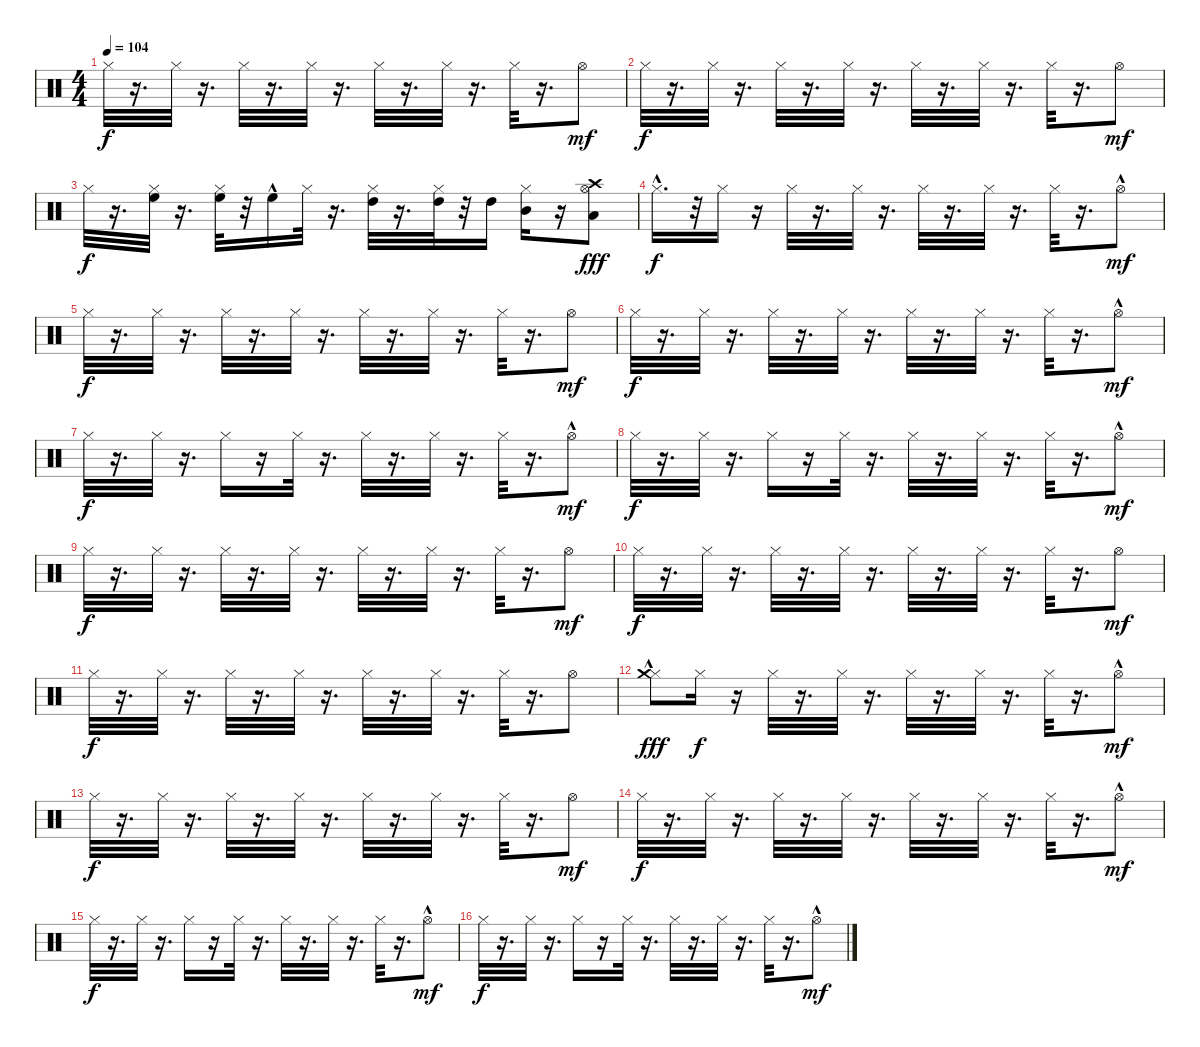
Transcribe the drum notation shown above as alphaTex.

\track "" {instrument percussion}
\staff {score}
\articulation defaults
\ts (4 4)
\tempo 104
\clef neutral
\ks c "Hi-Hat (closed)".32{dy f}
r.16{d} "Hi-Hat (closed)".32 r.16{d} "Hi-Hat (closed)".32 r.16{d} "Hi-Hat (closed)".32 r.16{d} "Hi-Hat (closed)".32 r.16{d} "Hi-Hat (closed)".32 r.16{d} "Hi-Hat (closed)".32 r.16{d} "Hi-Hat (open)".8{dy mf} |
"Hi-Hat (closed)".32{dy f} r.16{d} "Hi-Hat (closed)".32 r.16{d} "Hi-Hat (closed)".32 r.16{d} "Hi-Hat (closed)".32 r.16{d} "Hi-Hat (closed)".32 r.16{d} "Hi-Hat (closed)".32 r.16{d} "Hi-Hat (closed)".32 r.16{d} "Hi-Hat (open)".8{dy mf} |
"Hi-Hat (closed)".32{dy f} r.16{d} ("Hi-Hat (closed)" "High Floor Tom (hit)").32 r.16{d} ("Hi-Hat (closed)" "High Floor Tom (hit)").32 r.32 "High Floor Tom (hit)"{hac}.16 "Hi-Hat (closed)".32 r.16{d} ("Hi-Hat (closed)" "High Tom (hit)").32 r.16{d} ("Hi-Hat (closed)" "High Tom (hit)").32 r.32 "High Tom (hit)".16 ("Hi-Hat (closed)" "Mid Tom (hit)").16 r.16 ("Hi-Hat (open)" "Low Tom (hit)" "Crash high (hit)").8{dy fff} |
"Hi-Hat (closed)"{hac}.16{d dy f} r.32 "Hi-Hat (closed)".16 r.16 "Hi-Hat (closed)".32 r.16{d} "Hi-Hat (closed)".32 r.16{d} "Hi-Hat (closed)".32 r.16{d} "Hi-Hat (closed)".32 r.16{d} "Hi-Hat (closed)".32 r.16{d} "Hi-Hat (open)"{hac}.8{dy mf} |
"Hi-Hat (closed)".32{dy f} r.16{d} "Hi-Hat (closed)".32 r.16{d} "Hi-Hat (closed)".32 r.16{d} "Hi-Hat (closed)".32 r.16{d} "Hi-Hat (closed)".32 r.16{d} "Hi-Hat (closed)".32 r.16{d} "Hi-Hat (closed)".32 r.16{d} "Hi-Hat (open)".8{dy mf} |
"Hi-Hat (closed)".32{dy f} r.16{d} "Hi-Hat (closed)".32 r.16{d} "Hi-Hat (closed)".32 r.16{d} "Hi-Hat (closed)".32 r.16{d} "Hi-Hat (closed)".32 r.16{d} "Hi-Hat (closed)".32 r.16{d} "Hi-Hat (closed)".32 r.16{d} "Hi-Hat (open)"{hac}.8{dy mf} |
"Hi-Hat (closed)".32{dy f} r.16{d} "Hi-Hat (closed)".32 r.16{d} "Hi-Hat (closed)".16 r.16 "Hi-Hat (closed)".32 r.16{d} "Hi-Hat (closed)".32 r.16{d} "Hi-Hat (closed)".32 r.16{d} "Hi-Hat (closed)".32 r.16{d} "Hi-Hat (open)"{hac}.8{dy mf} |
"Hi-Hat (closed)".32{dy f} r.16{d} "Hi-Hat (closed)".32 r.16{d} "Hi-Hat (closed)".16 r.16 "Hi-Hat (closed)".32 r.16{d} "Hi-Hat (closed)".32 r.16{d} "Hi-Hat (closed)".32 r.16{d} "Hi-Hat (closed)".32 r.16{d} "Hi-Hat (open)"{hac}.8{dy mf} |
"Hi-Hat (closed)".32{dy f} r.16{d} "Hi-Hat (closed)".32 r.16{d} "Hi-Hat (closed)".32 r.16{d} "Hi-Hat (closed)".32 r.16{d} "Hi-Hat (closed)".32 r.16{d} "Hi-Hat (closed)".32 r.16{d} "Hi-Hat (closed)".32 r.16{d} "Hi-Hat (open)".8{dy mf} |
"Hi-Hat (closed)".32{dy f} r.16{d} "Hi-Hat (closed)".32 r.16{d} "Hi-Hat (closed)".32 r.16{d} "Hi-Hat (closed)".32 r.16{d} "Hi-Hat (closed)".32 r.16{d} "Hi-Hat (closed)".32 r.16{d} "Hi-Hat (closed)".32 r.16{d} "Hi-Hat (open)".8{dy mf} |
"Hi-Hat (closed)".32{dy f} r.16{d} "Hi-Hat (closed)".32 r.16{d} "Hi-Hat (closed)".32 r.16{d} "Hi-Hat (closed)".32 r.16{d} "Hi-Hat (closed)".32 r.16{d} "Hi-Hat (closed)".32 r.16{d} "Hi-Hat (closed)".32 r.16{d} "Hi-Hat (open)".8 |
("Hi-Hat (closed)"{hac} "Crash medium (hit)").8{dy fff} "Hi-Hat (closed)".16{dy f} r.16 "Hi-Hat (closed)".32 r.16{d} "Hi-Hat (closed)".32 r.16{d} "Hi-Hat (closed)".32 r.16{d} "Hi-Hat (closed)".32 r.16{d} "Hi-Hat (closed)".32 r.16{d} "Hi-Hat (open)"{hac}.8{dy mf} |
"Hi-Hat (closed)".32{dy f} r.16{d} "Hi-Hat (closed)".32 r.16{d} "Hi-Hat (closed)".32 r.16{d} "Hi-Hat (closed)".32 r.16{d} "Hi-Hat (closed)".32 r.16{d} "Hi-Hat (closed)".32 r.16{d} "Hi-Hat (closed)".32 r.16{d} "Hi-Hat (open)".8{dy mf} |
"Hi-Hat (closed)".32{dy f} r.16{d} "Hi-Hat (closed)".32 r.16{d} "Hi-Hat (closed)".32 r.16{d} "Hi-Hat (closed)".32 r.16{d} "Hi-Hat (closed)".32 r.16{d} "Hi-Hat (closed)".32 r.16{d} "Hi-Hat (closed)".32 r.16{d} "Hi-Hat (open)"{hac}.8{dy mf} |
"Hi-Hat (closed)".32{dy f} r.16{d} "Hi-Hat (closed)".32 r.16{d} "Hi-Hat (closed)".16 r.16 "Hi-Hat (closed)".32 r.16{d} "Hi-Hat (closed)".32 r.16{d} "Hi-Hat (closed)".32 r.16{d} "Hi-Hat (closed)".32 r.16{d} "Hi-Hat (open)"{hac}.8{dy mf} |
"Hi-Hat (closed)".32{dy f} r.16{d} "Hi-Hat (closed)".32 r.16{d} "Hi-Hat (closed)".16 r.16 "Hi-Hat (closed)".32 r.16{d} "Hi-Hat (closed)".32 r.16{d} "Hi-Hat (closed)".32 r.16{d} "Hi-Hat (closed)".32 r.16{d} "Hi-Hat (open)"{hac}.8{dy mf}
